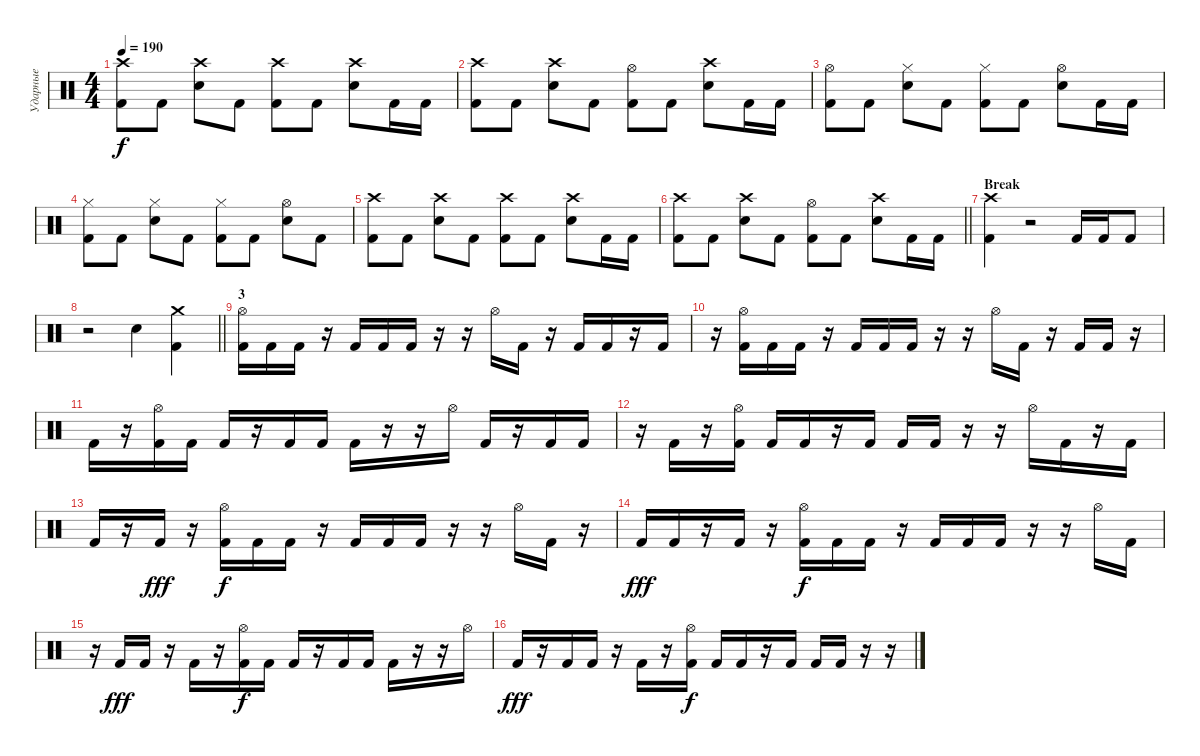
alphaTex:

\track ("Ударные" "Ударные") {instrument percussion}
\staff {score}
\articulation defaults
\ts (4 4)
\tempo 190
\clef neutral
\ks c
("Crash high (hit)" "Kick (hit) 2").8{dy f} "Kick (hit) 2".8 ("Crash high (hit)" "Snare (hit) 2").8 "Kick (hit) 2".8 ("Crash high (hit)" "Kick (hit) 2").8 "Kick (hit) 2".8 ("Crash high (hit)" "Snare (hit) 2").8 "Kick (hit) 2".16 "Kick (hit) 2".16 |
("Crash high (hit)" "Kick (hit) 2").8 "Kick (hit) 2".8 ("Crash high (hit)" "Snare (hit) 2").8 "Kick (hit) 2".8 ("Hi-Hat (open)" "Kick (hit) 2").8 "Kick (hit) 2".8 ("Crash high (hit)" "Snare (hit) 2").8 "Kick (hit) 2".16 "Kick (hit) 2".16 |
("Hi-Hat (open)" "Kick (hit) 2").8 "Kick (hit) 2".8 ("Hi-Hat (closed)" "Snare (hit) 2").8 "Kick (hit) 2".8 ("Hi-Hat (closed)" "Kick (hit) 2").8 "Kick (hit) 2".8 ("Hi-Hat (open)" "Snare (hit) 2").8 "Kick (hit) 2".16 "Kick (hit) 2".16 |
("Hi-Hat (closed)" "Kick (hit) 2").8 "Kick (hit) 2".8 ("Hi-Hat (closed)" "Snare (hit) 2").8 "Kick (hit) 2".8 ("Hi-Hat (closed)" "Kick (hit) 2").8 "Kick (hit) 2".8 ("Hi-Hat (open)" "Snare (hit) 2").8 "Kick (hit) 2".8 |
("Crash high (hit)" "Kick (hit) 2").8 "Kick (hit) 2".8 ("Crash high (hit)" "Snare (hit) 2").8 "Kick (hit) 2".8 ("Crash high (hit)" "Kick (hit) 2").8 "Kick (hit) 2".8 ("Crash high (hit)" "Snare (hit) 2").8 "Kick (hit) 2".16 "Kick (hit) 2".16 |
\barLineRight lightlight
("Crash high (hit)" "Kick (hit) 2").8 "Kick (hit) 2".8 ("Crash high (hit)" "Snare (hit) 2").8 "Kick (hit) 2".8 ("Hi-Hat (open)" "Kick (hit) 2").8 "Kick (hit) 2".8 ("Crash high (hit)" "Snare (hit) 2").8 "Kick (hit) 2".16 "Kick (hit) 2".16 |
\section ("" "Break")
("Crash high (hit)" "Kick (hit) 2").4 r.2 "Kick (hit) 2".16 "Kick (hit) 2".16 "Kick (hit) 2".8 |
\barLineRight lightlight
r.2 "Snare (hit) 2".4 ("Crash medium (hit)" "Kick (hit) 2").4 |
\section ("" "3")
("Hi-Hat (open)" "Kick (hit) 2").16 "Kick (hit) 2".16 "Kick (hit) 2".16 r.16 "Kick (hit) 2".16 "Kick (hit) 2".16 "Kick (hit) 2".16 r.16 r.16 "Hi-Hat (open)".16 "Kick (hit) 2".16 r.16 "Kick (hit) 2".16 "Kick (hit) 2".16 r.16 "Kick (hit) 2".16 |
r.16 ("Hi-Hat (open)" "Kick (hit) 2").16 "Kick (hit) 2".16 "Kick (hit) 2".16 r.16 "Kick (hit) 2".16 "Kick (hit) 2".16 "Kick (hit) 2".16 r.16 r.16 "Hi-Hat (open)".16 "Kick (hit) 2".16 r.16 "Kick (hit) 2".16 "Kick (hit) 2".16 r.16 |
"Kick (hit) 2".16 r.16 ("Hi-Hat (open)" "Kick (hit) 2").16 "Kick (hit) 2".16 "Kick (hit) 2".16 r.16 "Kick (hit) 2".16 "Kick (hit) 2".16 "Kick (hit) 2".16 r.16 r.16 "Hi-Hat (open)".16 "Kick (hit) 2".16 r.16 "Kick (hit) 2".16 "Kick (hit) 2".16 |
r.16 "Kick (hit) 2".16 r.16 ("Hi-Hat (open)" "Kick (hit) 2").16 "Kick (hit) 2".16 "Kick (hit) 2".16 r.16 "Kick (hit) 2".16 "Kick (hit) 2".16 "Kick (hit) 2".16 r.16 r.16 "Hi-Hat (open)".16 "Kick (hit) 2".16 r.16 "Kick (hit) 2".16 |
"Kick (hit) 2".16 r.16 "Kick (hit) 2".16{dy fff} r.16 ("Hi-Hat (open)" "Kick (hit) 2").16{dy f} "Kick (hit) 2".16 "Kick (hit) 2".16 r.16 "Kick (hit) 2".16 "Kick (hit) 2".16 "Kick (hit) 2".16 r.16 r.16 "Hi-Hat (open)".16 "Kick (hit) 2".16 r.16 |
"Kick (hit) 2".16{dy fff} "Kick (hit) 2".16 r.16 "Kick (hit) 2".16 r.16 ("Hi-Hat (open)" "Kick (hit) 2").16{dy f} "Kick (hit) 2".16 "Kick (hit) 2".16 r.16 "Kick (hit) 2".16 "Kick (hit) 2".16 "Kick (hit) 2".16 r.16 r.16 "Hi-Hat (open)".16 "Kick (hit) 2".16 |
r.16 "Kick (hit) 2".16{dy fff} "Kick (hit) 2".16 r.16 "Kick (hit) 2".16 r.16 ("Hi-Hat (open)" "Kick (hit) 2").16{dy f} "Kick (hit) 2".16 "Kick (hit) 2".16 r.16 "Kick (hit) 2".16 "Kick (hit) 2".16 "Kick (hit) 2".16 r.16 r.16 "Hi-Hat (open)".16 |
"Kick (hit) 2".16{dy fff} r.16 "Kick (hit) 2".16 "Kick (hit) 2".16 r.16 "Kick (hit) 2".16 r.16 ("Hi-Hat (open)" "Kick (hit) 2").16{dy f} "Kick (hit) 2".16 "Kick (hit) 2".16 r.16 "Kick (hit) 2".16 "Kick (hit) 2".16 "Kick (hit) 2".16 r.16 r.16
